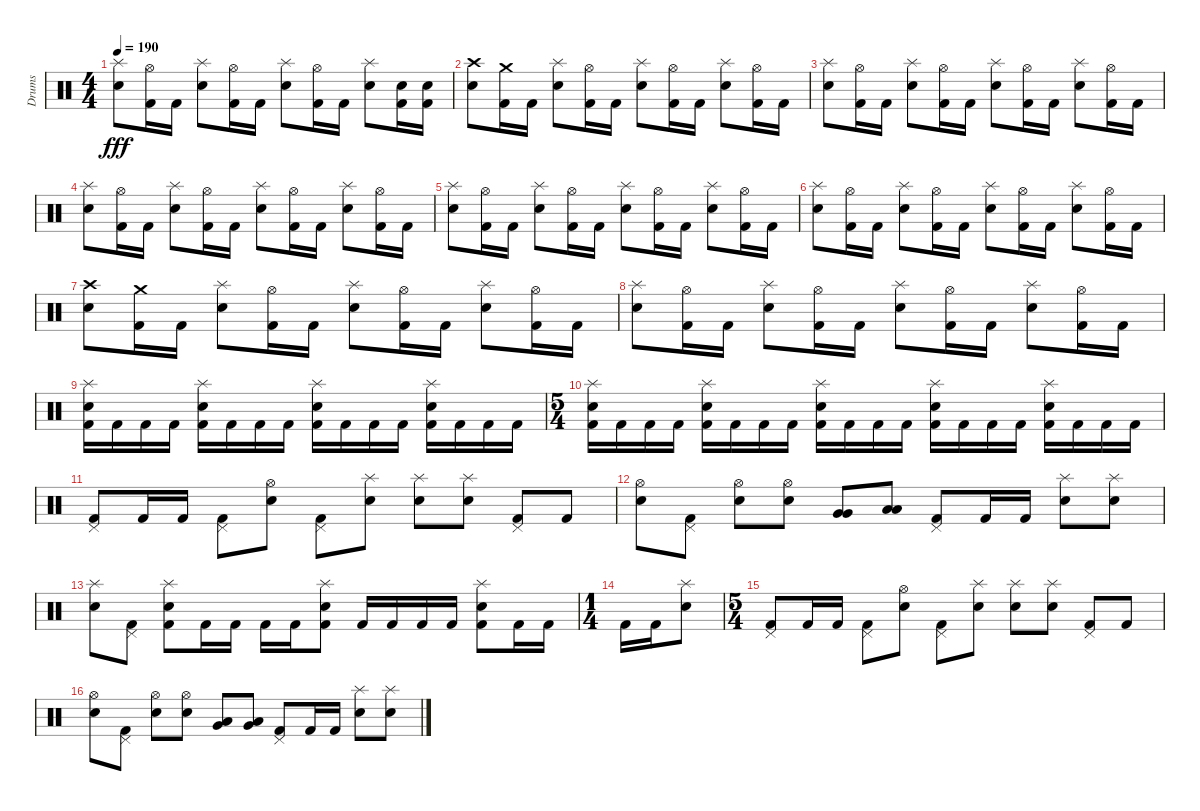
\track ("Drums" "Drums") {instrument percussion}
\staff {score}
\articulation defaults
\ts (4 4)
\tempo 190
\clef neutral
\ks c
("Splash (hit)" "Snare (hit) 2").8{dy fff} ("Hi-Hat (open)" "Kick (hit) 2").16 "Kick (hit) 2".16 ("Splash (hit)" "Snare (hit) 2").8 ("Hi-Hat (open)" "Kick (hit) 2").16 "Kick (hit) 2".16 ("Splash (hit)" "Snare (hit) 2").8 ("Hi-Hat (open)" "Kick (hit) 2").16 "Kick (hit) 2".16 ("Splash (hit)" "Snare (hit) 2").8 ("Snare (hit) 2" "Kick (hit) 2").16 ("Snare (hit) 2" "Kick (hit) 2").16 |
("Crash high (hit)" "Snare (hit) 2").8 ("Crash medium (hit)" "Kick (hit) 2").16 "Kick (hit) 2".16 ("Splash (hit)" "Snare (hit) 2").8 ("Hi-Hat (open)" "Kick (hit) 2").16 "Kick (hit) 2".16 ("Splash (hit)" "Snare (hit) 2").8 ("Hi-Hat (open)" "Kick (hit) 2").16 "Kick (hit) 2".16 ("Splash (hit)" "Snare (hit) 2").8 ("Hi-Hat (open)" "Kick (hit) 2").16 "Kick (hit) 2".16 |
("Splash (hit)" "Snare (hit) 2").8 ("Hi-Hat (open)" "Kick (hit) 2").16 "Kick (hit) 2".16 ("Splash (hit)" "Snare (hit) 2").8 ("Hi-Hat (open)" "Kick (hit) 2").16 "Kick (hit) 2".16 ("Splash (hit)" "Snare (hit) 2").8 ("Hi-Hat (open)" "Kick (hit) 2").16 "Kick (hit) 2".16 ("Splash (hit)" "Snare (hit) 2").8 ("Hi-Hat (open)" "Kick (hit) 2").16 "Kick (hit) 2".16 |
("Splash (hit)" "Snare (hit) 2").8 ("Hi-Hat (open)" "Kick (hit) 2").16 "Kick (hit) 2".16 ("Splash (hit)" "Snare (hit) 2").8 ("Hi-Hat (open)" "Kick (hit) 2").16 "Kick (hit) 2".16 ("Splash (hit)" "Snare (hit) 2").8 ("Hi-Hat (open)" "Kick (hit) 2").16 "Kick (hit) 2".16 ("Splash (hit)" "Snare (hit) 2").8 ("Hi-Hat (open)" "Kick (hit) 2").16 "Kick (hit) 2".16 |
("Splash (hit)" "Snare (hit) 2").8 ("Hi-Hat (open)" "Kick (hit) 2").16 "Kick (hit) 2".16 ("Splash (hit)" "Snare (hit) 2").8 ("Hi-Hat (open)" "Kick (hit) 2").16 "Kick (hit) 2".16 ("Splash (hit)" "Snare (hit) 2").8 ("Hi-Hat (open)" "Kick (hit) 2").16 "Kick (hit) 2".16 ("Splash (hit)" "Snare (hit) 2").8 ("Hi-Hat (open)" "Kick (hit) 2").16 "Kick (hit) 2".16 |
("Splash (hit)" "Snare (hit) 2").8 ("Hi-Hat (open)" "Kick (hit) 2").16 "Kick (hit) 2".16 ("Splash (hit)" "Snare (hit) 2").8 ("Hi-Hat (open)" "Kick (hit) 2").16 "Kick (hit) 2".16 ("Splash (hit)" "Snare (hit) 2").8 ("Hi-Hat (open)" "Kick (hit) 2").16 "Kick (hit) 2".16 ("Splash (hit)" "Snare (hit) 2").8 ("Hi-Hat (open)" "Kick (hit) 2").16 "Kick (hit) 2".16 |
("Crash high (hit)" "Snare (hit) 2").8 ("Crash medium (hit)" "Kick (hit) 2").16 "Kick (hit) 2".16 ("Splash (hit)" "Snare (hit) 2").8 ("Hi-Hat (open)" "Kick (hit) 2").16 "Kick (hit) 2".16 ("Splash (hit)" "Snare (hit) 2").8 ("Hi-Hat (open)" "Kick (hit) 2").16 "Kick (hit) 2".16 ("Splash (hit)" "Snare (hit) 2").8 ("Hi-Hat (open)" "Kick (hit) 2").16 "Kick (hit) 2".16 |
("Splash (hit)" "Snare (hit) 2").8 ("Hi-Hat (open)" "Kick (hit) 2").16 "Kick (hit) 2".16 ("Splash (hit)" "Snare (hit) 2").8 ("Hi-Hat (open)" "Kick (hit) 2").16 "Kick (hit) 2".16 ("Splash (hit)" "Snare (hit) 2").8 ("Hi-Hat (open)" "Kick (hit) 2").16 "Kick (hit) 2".16 ("Splash (hit)" "Snare (hit) 2").8 ("Hi-Hat (open)" "Kick (hit) 2").16 "Kick (hit) 2".16 |
("Splash (hit)" "Snare (hit) 2" "Kick (hit) 2").16 "Kick (hit) 2".16 "Kick (hit) 2".16 "Kick (hit) 2".16 ("Splash (hit)" "Snare (hit) 2" "Kick (hit) 2").16 "Kick (hit) 2".16 "Kick (hit) 2".16 "Kick (hit) 2".16 ("Splash (hit)" "Snare (hit) 2" "Kick (hit) 2").16 "Kick (hit) 2".16 "Kick (hit) 2".16 "Kick (hit) 2".16 ("Splash (hit)" "Snare (hit) 2" "Kick (hit) 2").16 "Kick (hit) 2".16 "Kick (hit) 2".16 "Kick (hit) 2".16 |
\ts (5 4)
("Splash (hit)" "Snare (hit) 2" "Kick (hit) 2").16 "Kick (hit) 2".16 "Kick (hit) 2".16 "Kick (hit) 2".16 ("Splash (hit)" "Snare (hit) 2" "Kick (hit) 2").16 "Kick (hit) 2".16 "Kick (hit) 2".16 "Kick (hit) 2".16 ("Splash (hit)" "Snare (hit) 2" "Kick (hit) 2").16 "Kick (hit) 2".16 "Kick (hit) 2".16 "Kick (hit) 2".16 ("Splash (hit)" "Snare (hit) 2" "Kick (hit) 2").16 "Kick (hit) 2".16 "Kick (hit) 2".16 "Kick (hit) 2".16 ("Splash (hit)" "Snare (hit) 2" "Kick (hit) 2").16 "Kick (hit) 2".16 "Kick (hit) 2".16 "Kick (hit) 2".16 |
("Pedal Hi-Hat (hit)" "Kick (hit) 2").8 "Kick (hit) 2".16 "Kick (hit) 2".16 ("Pedal Hi-Hat (hit)" "Kick (hit) 2").8 ("Hi-Hat (open)" "Snare (hit) 2").8 ("Pedal Hi-Hat (hit)" "Kick (hit) 2").8 ("Splash (hit)" "Snare (hit) 2").8 ("Splash (hit)" "Snare (hit) 2").8 ("Splash (hit)" "Snare (hit) 2").8 ("Pedal Hi-Hat (hit)" "Kick (hit) 2").8 "Kick (hit) 2".8 |
("Hi-Hat (open)" "Snare (hit) 2").8 ("Pedal Hi-Hat (hit)" "Kick (hit) 2").8 ("Hi-Hat (open)" "Snare (hit) 2").8 ("Hi-Hat (open)" "Snare (hit) 2").8 ("Very Low Tom (hit)" "Very Low Tom (hit)").8 ("Low Floor Tom (hit)" "Low Floor Tom (hit)").8 ("Pedal Hi-Hat (hit)" "Kick (hit) 2").8 "Kick (hit) 2".16 "Kick (hit) 2".16 ("Splash (hit)" "Snare (hit) 2").8 ("Splash (hit)" "Snare (hit) 2").8 |
("Splash (hit)" "Snare (hit) 2").8 ("Pedal Hi-Hat (hit)" "Kick (hit) 2").8 ("Splash (hit)" "Snare (hit) 2" "Kick (hit) 2").8 "Kick (hit) 2".16 "Kick (hit) 2".16 "Kick (hit) 2".16 "Kick (hit) 2".16 ("Splash (hit)" "Snare (hit) 2" "Kick (hit) 2").8 "Kick (hit) 2".16 "Kick (hit) 2".16 "Kick (hit) 2".16 "Kick (hit) 2".16 ("Splash (hit)" "Snare (hit) 2" "Kick (hit) 2").8 "Kick (hit) 2".16 "Kick (hit) 2".16 |
\ts (1 4)
"Kick (hit) 2".16 "Kick (hit) 2".16 ("Splash (hit)" "Snare (hit) 2").8 |
\ts (5 4)
("Pedal Hi-Hat (hit)" "Kick (hit) 2").8 "Kick (hit) 2".16 "Kick (hit) 2".16 ("Pedal Hi-Hat (hit)" "Kick (hit) 2").8 ("Hi-Hat (open)" "Snare (hit) 2").8 ("Pedal Hi-Hat (hit)" "Kick (hit) 2").8 ("Splash (hit)" "Snare (hit) 2").8 ("Splash (hit)" "Snare (hit) 2").8 ("Splash (hit)" "Snare (hit) 2").8 ("Pedal Hi-Hat (hit)" "Kick (hit) 2").8 "Kick (hit) 2".8 |
("Hi-Hat (open)" "Snare (hit) 2").8 ("Pedal Hi-Hat (hit)" "Kick (hit) 2").8 ("Hi-Hat (open)" "Snare (hit) 2").8 ("Hi-Hat (open)" "Snare (hit) 2").8 ("Low Tom (hit)" "Very Low Tom (hit)").8 ("Very Low Tom (hit)" "Low Floor Tom (hit)").8 ("Pedal Hi-Hat (hit)" "Kick (hit) 2").8 "Kick (hit) 2".16 "Kick (hit) 2".16 ("Splash (hit)" "Snare (hit) 2").8 ("Splash (hit)" "Snare (hit) 2").8
